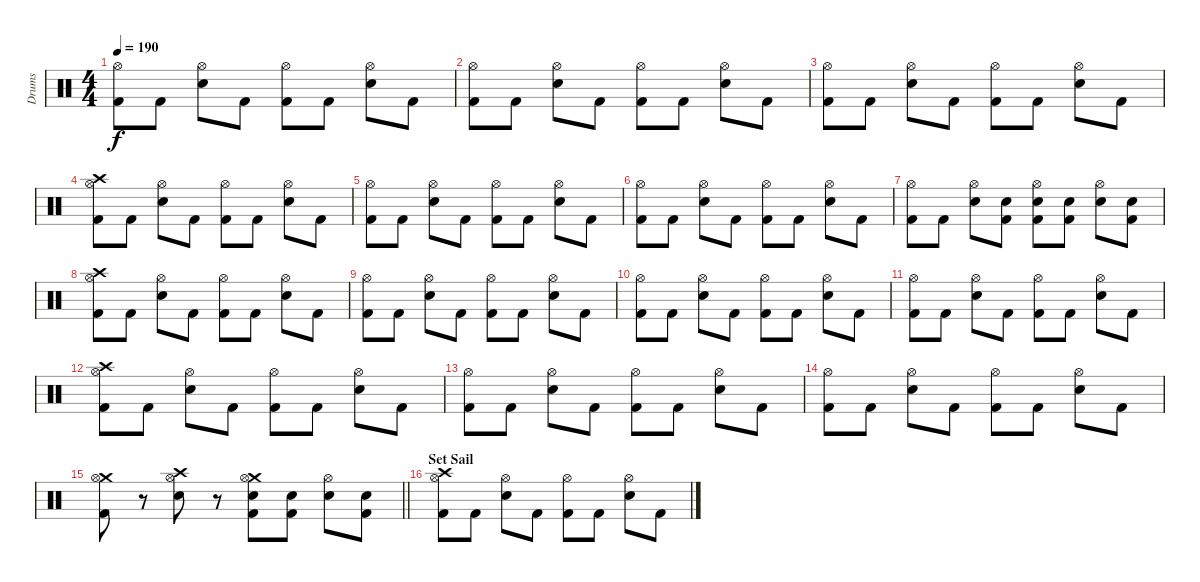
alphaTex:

\track ("Drums" "Drums") {instrument percussion}
\staff {score}
\articulation defaults
\ts (4 4)
\tempo 190
\clef neutral
\ks c
("Hi-Hat (open)" "Kick (hit) 2").8{dy f} "Kick (hit) 2".8 ("Hi-Hat (open)" "Snare (hit) 2").8 "Kick (hit) 2".8 ("Hi-Hat (open)" "Kick (hit) 2").8 "Kick (hit) 2".8 ("Hi-Hat (open)" "Snare (hit) 2").8 "Kick (hit) 2".8 |
("Hi-Hat (open)" "Kick (hit) 2").8 "Kick (hit) 2".8 ("Hi-Hat (open)" "Snare (hit) 2").8 "Kick (hit) 2".8 ("Hi-Hat (open)" "Kick (hit) 2").8 "Kick (hit) 2".8 ("Hi-Hat (open)" "Snare (hit) 2").8 "Kick (hit) 2".8 |
("Hi-Hat (open)" "Kick (hit) 2").8 "Kick (hit) 2".8 ("Hi-Hat (open)" "Snare (hit) 2").8 "Kick (hit) 2".8 ("Hi-Hat (open)" "Kick (hit) 2").8 "Kick (hit) 2".8 ("Hi-Hat (open)" "Snare (hit) 2").8 "Kick (hit) 2".8 |
("Crash high (hit)" "Hi-Hat (open)" "Kick (hit) 2").8 "Kick (hit) 2".8 ("Hi-Hat (open)" "Snare (hit) 2").8 "Kick (hit) 2".8 ("Hi-Hat (open)" "Kick (hit) 2").8 "Kick (hit) 2".8 ("Hi-Hat (open)" "Snare (hit) 2").8 "Kick (hit) 2".8 |
("Hi-Hat (open)" "Kick (hit) 2").8 "Kick (hit) 2".8 ("Hi-Hat (open)" "Snare (hit) 2").8 "Kick (hit) 2".8 ("Hi-Hat (open)" "Kick (hit) 2").8 "Kick (hit) 2".8 ("Hi-Hat (open)" "Snare (hit) 2").8 "Kick (hit) 2".8 |
("Hi-Hat (open)" "Kick (hit) 2").8 "Kick (hit) 2".8 ("Hi-Hat (open)" "Snare (hit) 2").8 "Kick (hit) 2".8 ("Hi-Hat (open)" "Kick (hit) 2").8 "Kick (hit) 2".8 ("Hi-Hat (open)" "Snare (hit) 2").8 "Kick (hit) 2".8 |
("Hi-Hat (open)" "Kick (hit) 2").8 "Kick (hit) 2".8 ("Hi-Hat (open)" "Snare (hit) 2").8 ("Snare (hit) 2" "Kick (hit) 2").8 ("Hi-Hat (open)" "Snare (hit) 2" "Kick (hit) 2").8 ("Snare (hit) 2" "Kick (hit) 2").8 ("Hi-Hat (open)" "Snare (hit) 2").8 ("Snare (hit) 2" "Kick (hit) 2").8 |
("Crash high (hit)" "Hi-Hat (open)" "Kick (hit) 2").8 "Kick (hit) 2".8 ("Hi-Hat (open)" "Snare (hit) 2").8 "Kick (hit) 2".8 ("Hi-Hat (open)" "Kick (hit) 2").8 "Kick (hit) 2".8 ("Hi-Hat (open)" "Snare (hit) 2").8 "Kick (hit) 2".8 |
("Hi-Hat (open)" "Kick (hit) 2").8 "Kick (hit) 2".8 ("Hi-Hat (open)" "Snare (hit) 2").8 "Kick (hit) 2".8 ("Hi-Hat (open)" "Kick (hit) 2").8 "Kick (hit) 2".8 ("Hi-Hat (open)" "Snare (hit) 2").8 "Kick (hit) 2".8 |
("Hi-Hat (open)" "Kick (hit) 2").8 "Kick (hit) 2".8 ("Hi-Hat (open)" "Snare (hit) 2").8 "Kick (hit) 2".8 ("Hi-Hat (open)" "Kick (hit) 2").8 "Kick (hit) 2".8 ("Hi-Hat (open)" "Snare (hit) 2").8 "Kick (hit) 2".8 |
("Hi-Hat (open)" "Kick (hit) 2").8 "Kick (hit) 2".8 ("Hi-Hat (open)" "Snare (hit) 2").8 "Kick (hit) 2".8 ("Hi-Hat (open)" "Kick (hit) 2").8 "Kick (hit) 2".8 ("Hi-Hat (open)" "Snare (hit) 2").8 "Kick (hit) 2".8 |
("Crash high (hit)" "Hi-Hat (open)" "Kick (hit) 2").8 "Kick (hit) 2".8 ("Hi-Hat (open)" "Snare (hit) 2").8 "Kick (hit) 2".8 ("Hi-Hat (open)" "Kick (hit) 2").8 "Kick (hit) 2".8 ("Hi-Hat (open)" "Snare (hit) 2").8 "Kick (hit) 2".8 |
("Hi-Hat (open)" "Kick (hit) 2").8 "Kick (hit) 2".8 ("Hi-Hat (open)" "Snare (hit) 2").8 "Kick (hit) 2".8 ("Hi-Hat (open)" "Kick (hit) 2").8 "Kick (hit) 2".8 ("Hi-Hat (open)" "Snare (hit) 2").8 "Kick (hit) 2".8 |
("Hi-Hat (open)" "Kick (hit) 2").8 "Kick (hit) 2".8 ("Hi-Hat (open)" "Snare (hit) 2").8 "Kick (hit) 2".8 ("Hi-Hat (open)" "Kick (hit) 2").8 "Kick (hit) 2".8 ("Hi-Hat (open)" "Snare (hit) 2").8 "Kick (hit) 2".8 |
\barLineRight lightlight
("Crash medium (hit)" "Hi-Hat (open)" "Kick (hit) 2").8 r.8 ("Crash high (hit)" "Hi-Hat (open)" "Snare (hit) 2").8 r.8 ("Crash medium (hit)" "Hi-Hat (open)" "Snare (hit) 2" "Kick (hit) 2").8 ("Snare (hit) 2" "Kick (hit) 2").8 ("Hi-Hat (open)" "Snare (hit) 2").8 ("Snare (hit) 2" "Kick (hit) 2").8 |
\section ("" "Set Sail")
("Crash high (hit)" "Hi-Hat (open)" "Kick (hit) 2").8 "Kick (hit) 2".8 ("Hi-Hat (open)" "Snare (hit) 2").8 "Kick (hit) 2".8 ("Hi-Hat (open)" "Kick (hit) 2").8 "Kick (hit) 2".8 ("Hi-Hat (open)" "Snare (hit) 2").8 "Kick (hit) 2".8
